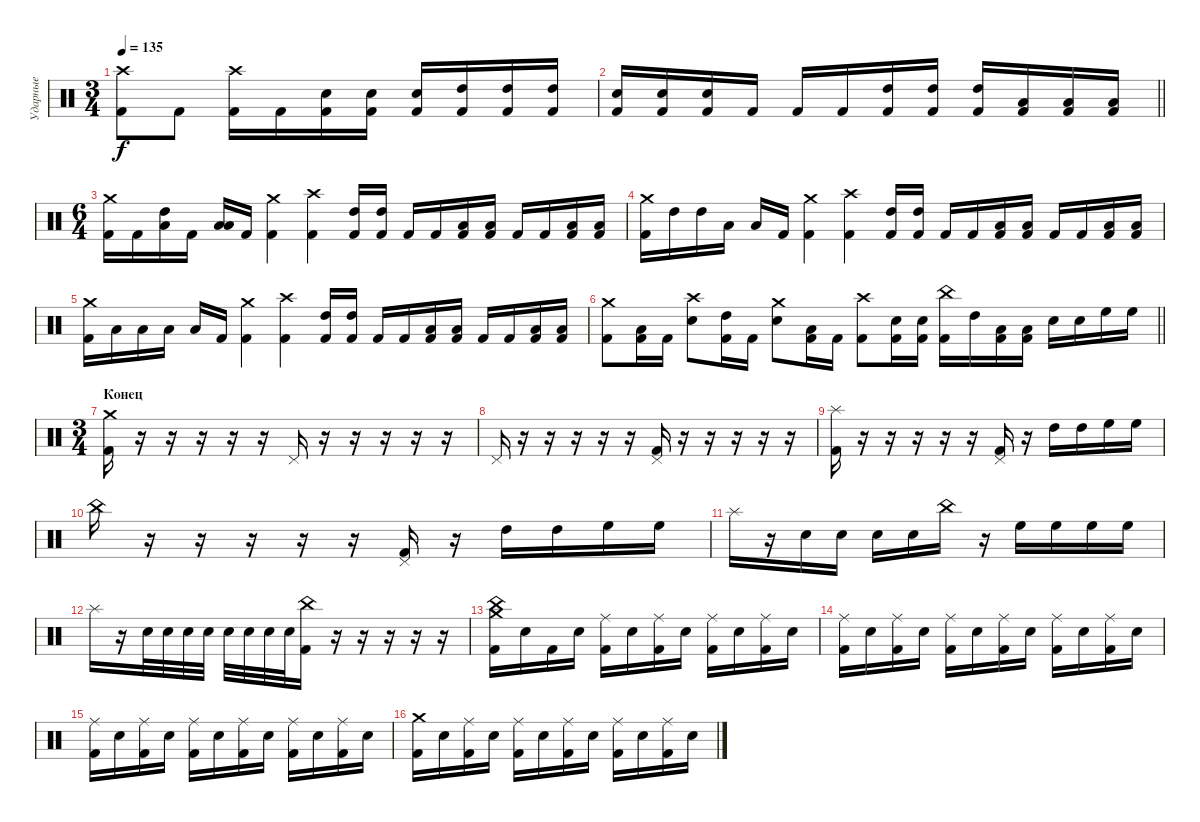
\track ("Ударные" "Ударные") {instrument percussion}
\staff {score}
\articulation defaults
\ts (3 4)
\tempo 135
\clef neutral
\ks c
("Crash high (hit)" "Kick (hit) 2").8{dy f} "Kick (hit) 2".8 ("Crash high (hit)" "Kick (hit) 2").16 "Kick (hit) 2".16 ("Electric Snare (hit)" "Kick (hit) 2").16 ("Electric Snare (hit)" "Kick (hit) 2").16 ("Electric Snare (hit)" "Kick (hit) 2").16 ("High Tom (hit)" "Kick (hit) 2").16 ("High Tom (hit)" "Kick (hit) 2").16 ("High Tom (hit)" "Kick (hit) 2").16 |
\barLineRight lightlight
("Electric Snare (hit)" "Kick (hit) 2").16 ("Electric Snare (hit)" "Kick (hit) 2").16 ("Electric Snare (hit)" "Kick (hit) 2").16 "Kick (hit) 2".16 "Kick (hit) 2".16 "Kick (hit) 2".16 ("High Tom (hit)" "Kick (hit) 2").16 ("High Tom (hit)" "Kick (hit) 2").16 ("High Tom (hit)" "Kick (hit) 2").16 ("Low Tom (hit)" "Kick (hit) 2").16 ("Low Tom (hit)" "Kick (hit) 2").16 ("Low Tom (hit)" "Kick (hit) 2").16 |
\ts (6 4)
("Crash medium (hit)" "Kick (hit) 2").16 "Kick (hit) 2".16 ("Low Floor Tom (hit)" "High Tom (hit)").16 "Kick (hit) 2".16 ("Low Floor Tom (hit)" "Low Tom (hit)").16 "Kick (hit) 2".16 ("Crash medium (hit)" "Kick (hit) 2").4 ("Crash high (hit)" "Kick (hit) 2").4 ("High Tom (hit)" "Kick (hit) 2").16 ("High Tom (hit)" "Kick (hit) 2").16 "Kick (hit) 2".16 "Kick (hit) 2".16 ("Low Tom (hit)" "Kick (hit) 2").16 ("Low Tom (hit)" "Kick (hit) 2").16 "Kick (hit) 2".16 "Kick (hit) 2".16 ("Low Floor Tom (hit)" "Kick (hit) 2").16 ("Low Floor Tom (hit)" "Kick (hit) 2").16 |
("Crash medium (hit)" "Kick (hit) 2").16 "High Tom (hit)".16 "High Tom (hit)".16 "Low Tom (hit)".16 "Low Tom (hit)".16 "Kick (hit) 2".16 ("Crash medium (hit)" "Kick (hit) 2").4 ("Crash high (hit)" "Kick (hit) 2").4 ("High Tom (hit)" "Kick (hit) 2").16 ("High Tom (hit)" "Kick (hit) 2").16 "Kick (hit) 2".16 "Kick (hit) 2".16 ("Low Tom (hit)" "Kick (hit) 2").16 ("Low Tom (hit)" "Kick (hit) 2").16 "Kick (hit) 2".16 "Kick (hit) 2".16 ("Low Floor Tom (hit)" "Kick (hit) 2").16 ("Low Floor Tom (hit)" "Kick (hit) 2").16 |
("Crash medium (hit)" "Kick (hit) 2").16 "Low Tom (hit)".16 "Low Tom (hit)".16 "Low Floor Tom (hit)".16 "Low Floor Tom (hit)".16 "Kick (hit) 2".16 ("Crash medium (hit)" "Kick (hit) 2").4 ("Crash high (hit)" "Kick (hit) 2").4 ("High Tom (hit)" "Kick (hit) 2").16 ("High Tom (hit)" "Kick (hit) 2").16 "Kick (hit) 2".16 "Kick (hit) 2".16 ("Low Tom (hit)" "Kick (hit) 2").16 ("Low Tom (hit)" "Kick (hit) 2").16 "Kick (hit) 2".16 "Kick (hit) 2".16 ("Low Floor Tom (hit)" "Kick (hit) 2").16 ("Low Floor Tom (hit)" "Kick (hit) 2").16 |
\barLineRight lightlight
("Crash medium (hit)" "Kick (hit) 2").8 ("Low Tom (hit)" "Kick (hit) 2").16 "Kick (hit) 2".16 ("Crash high (hit)" "Electric Snare (hit)").8 ("High Tom (hit)" "Kick (hit) 2").16 "Kick (hit) 2".16 ("Crash medium (hit)" "Electric Snare (hit)").8 ("Low Floor Tom (hit)" "Kick (hit) 2").16 "Kick (hit) 2".16 ("Crash high (hit)" "Kick (hit) 2").8 ("Electric Snare (hit)" "Kick (hit) 2").16 ("Electric Snare (hit)" "Kick (hit) 2").16 ("China (hit)" "Kick (hit) 2").16 "High Tom (hit)".16 ("Low Tom (hit)" "Kick (hit) 2").16 ("Low Tom (hit)" "Kick (hit) 2").16 "Electric Snare (hit)".16 "Electric Snare (hit)".16 "High Floor Tom (hit)".16 "High Floor Tom (hit)".16 |
\ts (3 4)
\section ("" "Конец")
("Crash medium (hit)" "Kick (hit) 2").16 r.16 r.16 r.16 r.16 r.16 "Pedal Hi-Hat (hit)".16 r.16 r.16 r.16 r.16 r.16 |
"Pedal Hi-Hat (hit)".16 r.16 r.16 r.16 r.16 r.16 ("Pedal Hi-Hat (hit)" "Kick (hit) 2").16 r.16 r.16 r.16 r.16 r.16 |
("Splash (hit)" "Kick (hit) 2").16 r.16 r.16 r.16 r.16 r.16 ("Pedal Hi-Hat (hit)" "Kick (hit) 2").16 r.16 "High Tom (hit)".16 "High Tom (hit)".16 "High Floor Tom (hit)".16 "High Floor Tom (hit)".16 |
"China (hit)".16 r.16 r.16 r.16 r.16 r.16 ("Pedal Hi-Hat (hit)" "Kick (hit) 2").16 r.16 "High Tom (hit)".16 "High Tom (hit)".16 "High Floor Tom (hit)".16 "High Floor Tom (hit)".16 |
"Splash (hit)".16 r.16 "Electric Snare (hit)".16 "Electric Snare (hit)".16 "Electric Snare (hit)".16 "Electric Snare (hit)".16 "China (hit)".16 r.16 "High Floor Tom (hit)".16 "High Floor Tom (hit)".16 "High Floor Tom (hit)".16 "High Floor Tom (hit)".16 |
"Splash (hit)".16 r.16 "Electric Snare (hit)".32 "Electric Snare (hit)".32 "Electric Snare (hit)".32 "Electric Snare (hit)".32 "Electric Snare (hit)".32 "Electric Snare (hit)".32 "Electric Snare (hit)".32 "Electric Snare (hit)".32 ("China (hit)" "Kick (hit) 2").16 r.16 r.16 r.16 r.16 r.16 |
("China (hit)" "Crash medium (hit)" "Kick (hit) 2").16 "Electric Snare (hit)".16 "Kick (hit) 2".16 "Electric Snare (hit)".16 ("Ride (middle)" "Kick (hit) 2").16 "Electric Snare (hit)".16 ("Ride (middle)" "Kick (hit) 2").16 "Electric Snare (hit)".16 ("Ride (middle)" "Kick (hit) 2").16 "Electric Snare (hit)".16 ("Ride (middle)" "Kick (hit) 2").16 "Electric Snare (hit)".16 |
("Ride (middle)" "Kick (hit) 2").16 "Electric Snare (hit)".16 ("Ride (middle)" "Kick (hit) 2").16 "Electric Snare (hit)".16 ("Ride (middle)" "Kick (hit) 2").16 "Electric Snare (hit)".16 ("Ride (middle)" "Kick (hit) 2").16 "Electric Snare (hit)".16 ("Ride (middle)" "Kick (hit) 2").16 "Electric Snare (hit)".16 ("Ride (middle)" "Kick (hit) 2").16 "Electric Snare (hit)".16 |
("Ride (middle)" "Kick (hit) 2").16 "Electric Snare (hit)".16 ("Ride (middle)" "Kick (hit) 2").16 "Electric Snare (hit)".16 ("Ride (middle)" "Kick (hit) 2").16 "Electric Snare (hit)".16 ("Ride (middle)" "Kick (hit) 2").16 "Electric Snare (hit)".16 ("Ride (middle)" "Kick (hit) 2").16 "Electric Snare (hit)".16 ("Ride (middle)" "Kick (hit) 2").16 "Electric Snare (hit)".16 |
("Crash medium (hit)" "Kick (hit) 2").16 "Electric Snare (hit)".16 ("Ride (middle)" "Kick (hit) 2").16 "Electric Snare (hit)".16 ("Ride (middle)" "Kick (hit) 2").16 "Electric Snare (hit)".16 ("Ride (middle)" "Kick (hit) 2").16 "Electric Snare (hit)".16 ("Ride (middle)" "Kick (hit) 2").16 "Electric Snare (hit)".16 ("Ride (middle)" "Kick (hit) 2").16 "Electric Snare (hit)".16
